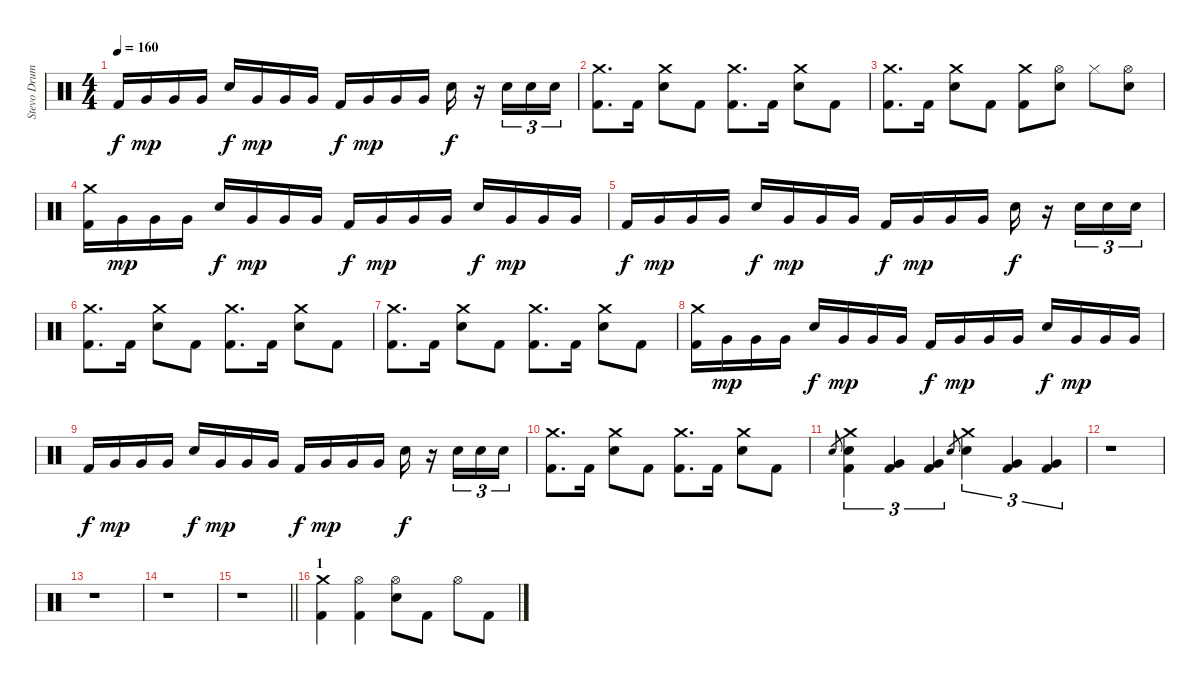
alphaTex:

\track ("Stevo Drums" "Stevo Drum") {instrument percussion}
\staff {score}
\articulation defaults
\ts (4 4)
\tempo 160
\clef neutral
\ks c "Kick (hit) 2".16{dy f} "Very Low Tom (hit)".16{dy mp} "Very Low Tom (hit)".16 "Very Low Tom (hit)".16 "Electric Snare (hit)".16{dy f} "Very Low Tom (hit)".16{dy mp} "Very Low Tom (hit)".16 "Very Low Tom (hit)".16 "Kick (hit) 2".16{dy f} "Very Low Tom (hit)".16{dy mp} "Very Low Tom (hit)".16 "Very Low Tom (hit)".16 "Electric Snare (hit)".16{dy f}
r.16 "Electric Snare (hit)".16{tu (3 2)} "Electric Snare (hit)".16{tu (3 2)} "Electric Snare (hit)".16{tu (3 2)} |
("Crash medium (hit)" "Kick (hit) 2").8{d} "Kick (hit) 2".16 ("Crash medium (hit)" "Electric Snare (hit)").8 "Kick (hit) 2".8 ("Crash medium (hit)" "Kick (hit) 2").8{d} "Kick (hit) 2".16 ("Crash medium (hit)" "Electric Snare (hit)").8 "Kick (hit) 2".8 |
("Crash medium (hit)" "Kick (hit) 2").8{d} "Kick (hit) 2".16 ("Crash medium (hit)" "Electric Snare (hit)").8 "Kick (hit) 2".8 ("Crash medium (hit)" "Kick (hit) 2").8 ("Hi-Hat (open)" "Electric Snare (hit)").8 "Hi-Hat (closed)".8 ("Hi-Hat (open)" "Electric Snare (hit)").8 |
("Crash medium (hit)" "Kick (hit) 2").16 "Very Low Tom (hit)".16{dy mp} "Very Low Tom (hit)".16 "Very Low Tom (hit)".16 "Electric Snare (hit)".16{dy f} "Very Low Tom (hit)".16{dy mp} "Very Low Tom (hit)".16 "Very Low Tom (hit)".16 "Kick (hit) 2".16{dy f} "Very Low Tom (hit)".16{dy mp} "Very Low Tom (hit)".16 "Very Low Tom (hit)".16 "Electric Snare (hit)".16{dy f} "Very Low Tom (hit)".16{dy mp} "Very Low Tom (hit)".16 "Very Low Tom (hit)".16 |
"Kick (hit) 2".16{dy f} "Very Low Tom (hit)".16{dy mp} "Very Low Tom (hit)".16 "Very Low Tom (hit)".16 "Electric Snare (hit)".16{dy f} "Very Low Tom (hit)".16{dy mp} "Very Low Tom (hit)".16 "Very Low Tom (hit)".16 "Kick (hit) 2".16{dy f} "Very Low Tom (hit)".16{dy mp} "Very Low Tom (hit)".16 "Very Low Tom (hit)".16 "Electric Snare (hit)".16{dy f} r.16 "Electric Snare (hit)".16{tu (3 2)} "Electric Snare (hit)".16{tu (3 2)} "Electric Snare (hit)".16{tu (3 2)} |
("Crash medium (hit)" "Kick (hit) 2").8{d} "Kick (hit) 2".16 ("Crash medium (hit)" "Electric Snare (hit)").8 "Kick (hit) 2".8 ("Crash medium (hit)" "Kick (hit) 2").8{d} "Kick (hit) 2".16 ("Crash medium (hit)" "Electric Snare (hit)").8 "Kick (hit) 2".8 |
("Crash medium (hit)" "Kick (hit) 2").8{d} "Kick (hit) 2".16 ("Crash medium (hit)" "Electric Snare (hit)").8 "Kick (hit) 2".8 ("Crash medium (hit)" "Kick (hit) 2").8{d} "Kick (hit) 2".16 ("Crash medium (hit)" "Electric Snare (hit)").8 "Kick (hit) 2".8 |
("Crash medium (hit)" "Kick (hit) 2").16 "Very Low Tom (hit)".16{dy mp} "Very Low Tom (hit)".16 "Very Low Tom (hit)".16 "Electric Snare (hit)".16{dy f} "Very Low Tom (hit)".16{dy mp} "Very Low Tom (hit)".16 "Very Low Tom (hit)".16 "Kick (hit) 2".16{dy f} "Very Low Tom (hit)".16{dy mp} "Very Low Tom (hit)".16 "Very Low Tom (hit)".16 "Electric Snare (hit)".16{dy f} "Very Low Tom (hit)".16{dy mp} "Very Low Tom (hit)".16 "Very Low Tom (hit)".16 |
"Kick (hit) 2".16{dy f} "Very Low Tom (hit)".16{dy mp} "Very Low Tom (hit)".16 "Very Low Tom (hit)".16 "Electric Snare (hit)".16{dy f} "Very Low Tom (hit)".16{dy mp} "Very Low Tom (hit)".16 "Very Low Tom (hit)".16 "Kick (hit) 2".16{dy f} "Very Low Tom (hit)".16{dy mp} "Very Low Tom (hit)".16 "Very Low Tom (hit)".16 "Electric Snare (hit)".16{dy f} r.16 "Electric Snare (hit)".16{tu (3 2)} "Electric Snare (hit)".16{tu (3 2)} "Electric Snare (hit)".16{tu (3 2)} |
("Crash medium (hit)" "Kick (hit) 2").8{d} "Kick (hit) 2".16 ("Crash medium (hit)" "Electric Snare (hit)").8 "Kick (hit) 2".8 ("Crash medium (hit)" "Kick (hit) 2").8{d} "Kick (hit) 2".16 ("Crash medium (hit)" "Electric Snare (hit)").8 "Kick (hit) 2".8 |
"Electric Snare (hit)".8{gr} ("Crash medium (hit)" "Electric Snare (hit)" "Kick (hit) 2").4{tu (3 2)} ("Very Low Tom (hit)" "Kick (hit) 2").4{tu (3 2)} ("Very Low Tom (hit)" "Kick (hit) 2").4{tu (3 2)} "Electric Snare (hit)".8{gr} ("Crash medium (hit)" "Electric Snare (hit)").4{tu (3 2)} ("Very Low Tom (hit)" "Kick (hit) 2").4{tu (3 2)} ("Very Low Tom (hit)" "Kick (hit) 2").4{tu (3 2)} |
r.1 |
r.1 |
r.1 |
\barLineRight lightlight
r.1 |
\section ("" "1")
("Crash medium (hit)" "Kick (hit) 2").4 ("Hi-Hat (open)" "Kick (hit) 2").4 ("Electric Snare (hit)" "Hi-Hat (open)").8 "Kick (hit) 2".8 "Hi-Hat (open)".8 "Kick (hit) 2".8
